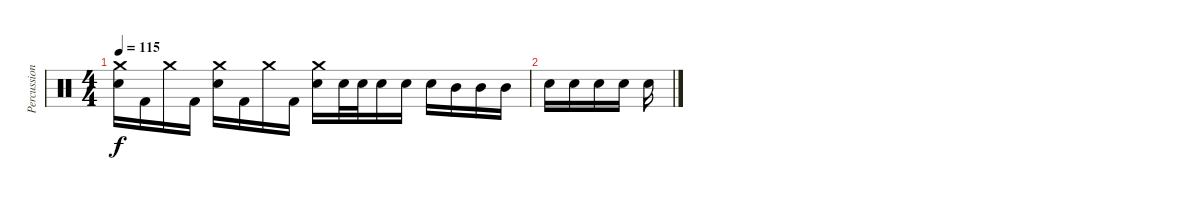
\track ("Percussion" "Percussion") {instrument percussion}
\staff {score}
\articulation defaults
\ts (4 4)
\tempo 115
\clef neutral
\ks c
("Crash medium (hit)" "Electric Snare (hit)").16{dy f} "Kick (hit) 2".16 "Crash medium (hit)".16 "Kick (hit) 2".16 ("Crash medium (hit)" "Electric Snare (hit)").16 "Kick (hit) 2".16 "Crash medium (hit)".16 "Kick (hit) 2".16 ("Crash medium (hit)" "Electric Snare (hit)").16 "Electric Snare (hit)".32 "Electric Snare (hit)".32 "Electric Snare (hit)".16 "Electric Snare (hit)".16 "Electric Snare (hit)".16 "Mid Tom (hit)".16 "Mid Tom (hit)".16 "Mid Tom (hit)".16 |
"Electric Snare (hit)".16 "Electric Snare (hit)".16 "Electric Snare (hit)".16 "Electric Snare (hit)".16 "Electric Snare (hit)".16
